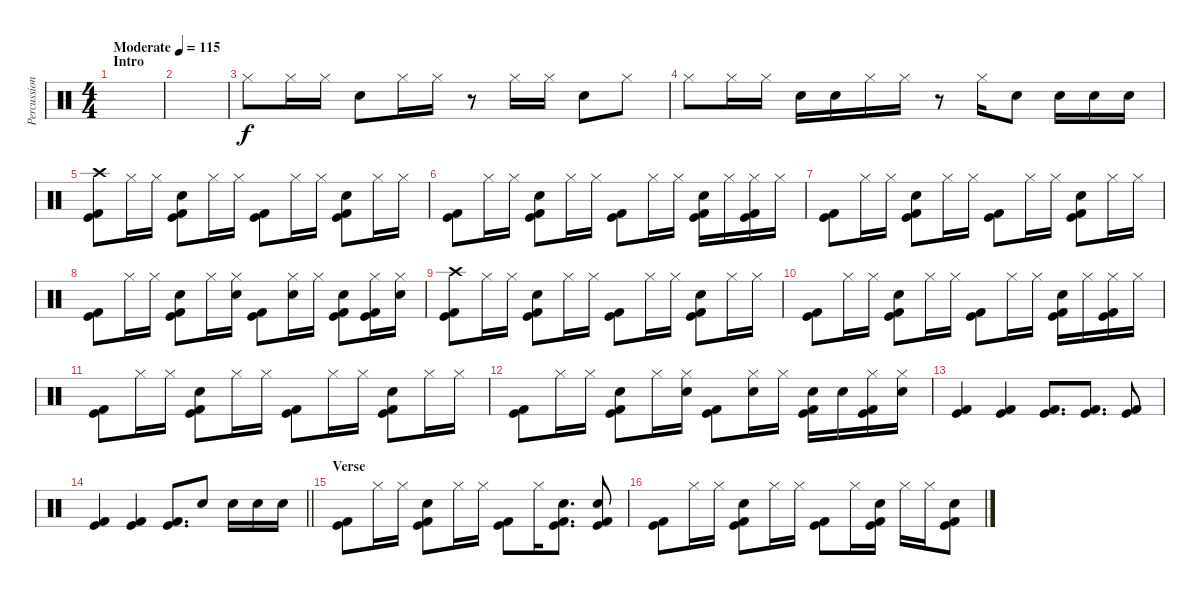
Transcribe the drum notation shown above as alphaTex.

\track ("Percussion" "Percussion") {instrument percussion}
\staff {score}
\articulation defaults
\ts (4 4)
\section ("" "Intro")
\tempo (115 "Moderate")
\clef neutral
\ks c
|
|
"Hi-Hat (closed)".8 "Hi-Hat (closed)".16 "Hi-Hat (closed)".16 "Electric Snare (hit)".8 "Hi-Hat (closed)".16 "Hi-Hat (closed)".16 r.8 "Hi-Hat (closed)".16 "Hi-Hat (closed)".16 "Electric Snare (hit)".8 "Hi-Hat (closed)".8 |
"Hi-Hat (closed)".8 "Hi-Hat (closed)".16 "Hi-Hat (closed)".16 "Electric Snare (hit)".16 "Electric Snare (hit)".16 "Hi-Hat (closed)".16 "Hi-Hat (closed)".16 r.8 "Hi-Hat (closed)".16 "Electric Snare (hit)".8 "Electric Snare (hit)".16 "Electric Snare (hit)".16 "Electric Snare (hit)".16 |
("Crash high (hit)" "Kick (hit)" "Kick (hit) 2").8 "Hi-Hat (closed)".16 "Hi-Hat (closed)".16 ("Electric Snare (hit)" "Kick (hit)" "Kick (hit) 2").8 "Hi-Hat (closed)".16 "Hi-Hat (closed)".16 ("Kick (hit)" "Kick (hit) 2").8 "Hi-Hat (closed)".16 "Hi-Hat (closed)".16 ("Electric Snare (hit)" "Kick (hit)" "Kick (hit) 2").8 "Hi-Hat (closed)".16 "Hi-Hat (closed)".16 |
("Kick (hit)" "Kick (hit) 2").8 "Hi-Hat (closed)".16 "Hi-Hat (closed)".16 ("Electric Snare (hit)" "Kick (hit)" "Kick (hit) 2").8 "Hi-Hat (closed)".16 "Hi-Hat (closed)".16 ("Kick (hit)" "Kick (hit) 2").8 "Hi-Hat (closed)".16 "Hi-Hat (closed)".16 ("Electric Snare (hit)" "Kick (hit)" "Kick (hit) 2").16 "Hi-Hat (closed)".16 ("Hi-Hat (closed)" "Kick (hit)" "Kick (hit) 2").16 "Hi-Hat (closed)".16 |
("Kick (hit)" "Kick (hit) 2").8 "Hi-Hat (closed)".16 "Hi-Hat (closed)".16 ("Electric Snare (hit)" "Kick (hit)" "Kick (hit) 2").8 "Hi-Hat (closed)".16 "Hi-Hat (closed)".16 ("Kick (hit)" "Kick (hit) 2").8 "Hi-Hat (closed)".16 "Hi-Hat (closed)".16 ("Electric Snare (hit)" "Kick (hit)" "Kick (hit) 2").8 "Hi-Hat (closed)".16 "Hi-Hat (closed)".16 |
("Kick (hit)" "Kick (hit) 2").8 "Hi-Hat (closed)".16 "Hi-Hat (closed)".16 ("Electric Snare (hit)" "Kick (hit)" "Kick (hit) 2").8 "Hi-Hat (closed)".16 ("Hi-Hat (closed)" "Electric Snare (hit)").16 ("Kick (hit)" "Kick (hit) 2").8 ("Hi-Hat (closed)" "Electric Snare (hit)").16 "Hi-Hat (closed)".16 ("Electric Snare (hit)" "Kick (hit)" "Kick (hit) 2").8 ("Hi-Hat (closed)" "Kick (hit)" "Kick (hit) 2").16 ("Hi-Hat (closed)" "Electric Snare (hit)").16 |
("Crash high (hit)" "Kick (hit)" "Kick (hit) 2").8 "Hi-Hat (closed)".16 "Hi-Hat (closed)".16 ("Electric Snare (hit)" "Kick (hit)" "Kick (hit) 2").8 "Hi-Hat (closed)".16 "Hi-Hat (closed)".16 ("Kick (hit)" "Kick (hit) 2").8 "Hi-Hat (closed)".16 "Hi-Hat (closed)".16 ("Electric Snare (hit)" "Kick (hit)" "Kick (hit) 2").8 "Hi-Hat (closed)".16 "Hi-Hat (closed)".16 |
("Kick (hit)" "Kick (hit) 2").8 "Hi-Hat (closed)".16 "Hi-Hat (closed)".16 ("Electric Snare (hit)" "Kick (hit)" "Kick (hit) 2").8 "Hi-Hat (closed)".16 "Hi-Hat (closed)".16 ("Kick (hit)" "Kick (hit) 2").8 "Hi-Hat (closed)".16 "Hi-Hat (closed)".16 ("Electric Snare (hit)" "Kick (hit)" "Kick (hit) 2").16 "Hi-Hat (closed)".16 ("Hi-Hat (closed)" "Kick (hit)" "Kick (hit) 2").16 "Hi-Hat (closed)".16 |
("Kick (hit)" "Kick (hit) 2").8 "Hi-Hat (closed)".16 "Hi-Hat (closed)".16 ("Electric Snare (hit)" "Kick (hit)" "Kick (hit) 2").8 "Hi-Hat (closed)".16 "Hi-Hat (closed)".16 ("Kick (hit)" "Kick (hit) 2").8 "Hi-Hat (closed)".16 "Hi-Hat (closed)".16 ("Electric Snare (hit)" "Kick (hit)" "Kick (hit) 2").8 "Hi-Hat (closed)".16 "Hi-Hat (closed)".16 |
("Kick (hit)" "Kick (hit) 2").8 "Hi-Hat (closed)".16 "Hi-Hat (closed)".16 ("Electric Snare (hit)" "Kick (hit)" "Kick (hit) 2").8 "Hi-Hat (closed)".16 ("Hi-Hat (closed)" "Electric Snare (hit)").16 ("Kick (hit)" "Kick (hit) 2").8 ("Hi-Hat (closed)" "Electric Snare (hit)").16 "Hi-Hat (closed)".16 ("Electric Snare (hit)" "Kick (hit)" "Kick (hit) 2").16 "Electric Snare (hit)".16 ("Hi-Hat (closed)" "Kick (hit)" "Kick (hit) 2").16 ("Hi-Hat (closed)" "Electric Snare (hit)").16 |
("Kick (hit)" "Kick (hit) 2").4 ("Kick (hit)" "Kick (hit) 2").4 ("Kick (hit)" "Kick (hit) 2").8{d} ("Kick (hit)" "Kick (hit) 2").8{d} ("Kick (hit)" "Kick (hit) 2").8 |
\barLineRight lightlight
("Kick (hit)" "Kick (hit) 2").4 ("Kick (hit)" "Kick (hit) 2").4 ("Kick (hit)" "Kick (hit) 2").8{d} "Electric Snare (hit)".8 "Electric Snare (hit)".16 "Electric Snare (hit)".16 "Electric Snare (hit)".16 |
\section ("" "Verse")
("Kick (hit)" "Kick (hit) 2").8 "Hi-Hat (closed)".16 "Hi-Hat (closed)".16 ("Electric Snare (hit)" "Kick (hit)" "Kick (hit) 2").8 "Hi-Hat (closed)".16 "Hi-Hat (closed)".16 ("Kick (hit)" "Kick (hit) 2").8 "Hi-Hat (closed)".16 ("Electric Snare (hit)" "Kick (hit)" "Kick (hit) 2").8{d} ("Electric Snare (hit)" "Kick (hit)" "Kick (hit) 2").8 |
("Kick (hit)" "Kick (hit) 2").8 "Hi-Hat (closed)".16 "Hi-Hat (closed)".16 ("Electric Snare (hit)" "Kick (hit)" "Kick (hit) 2").8 "Hi-Hat (closed)".16 "Hi-Hat (closed)".16 ("Kick (hit)" "Kick (hit) 2").8 "Hi-Hat (closed)".16 ("Electric Snare (hit)" "Kick (hit)" "Kick (hit) 2").16 "Hi-Hat (closed)".16 "Hi-Hat (closed)".16 ("Electric Snare (hit)" "Kick (hit)" "Kick (hit) 2").8
